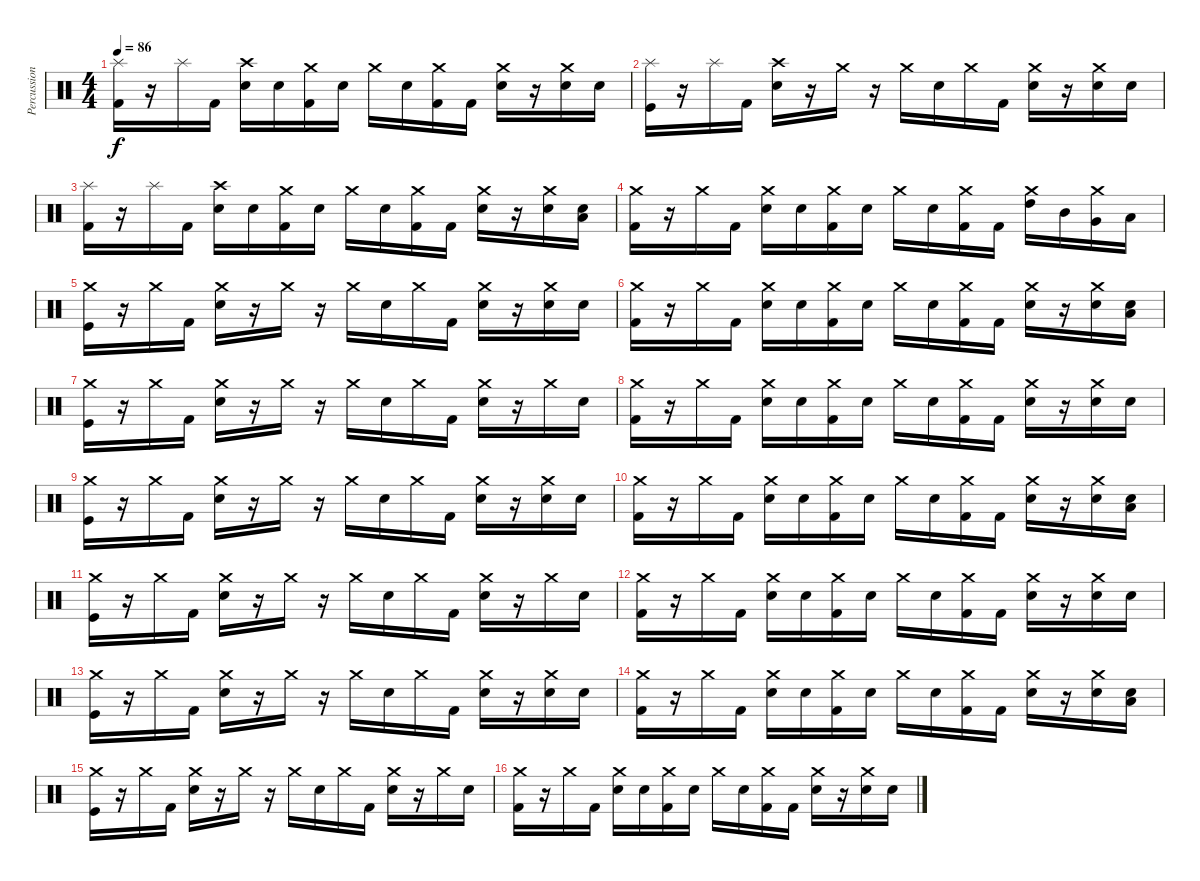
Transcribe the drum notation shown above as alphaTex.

\track ("Percussion" "Percussion") {instrument percussion}
\staff {score}
\articulation defaults
\ts (4 4)
\tempo 86
\clef neutral
\ks c
("Splash (hit)" "Kick (hit) 2").16{dy f} r.16 "Splash (hit)".16 "Kick (hit) 2".16 ("Crash high (hit)" "Electric Snare (hit)").16 "Electric Snare (hit)".16 ("Crash medium (hit)" "Kick (hit) 2").16 "Electric Snare (hit)".16 "Crash medium (hit)".16 "Electric Snare (hit)".16 ("Crash medium (hit)" "Kick (hit) 2").16 "Kick (hit) 2".16 ("Crash medium (hit)" "Electric Snare (hit)").16 r.16 ("Crash medium (hit)" "Electric Snare (hit)").16 "Electric Snare (hit)".16 |
("Splash (hit)" "Kick (hit)").16 r.16 "Splash (hit)".16 "Kick (hit) 2".16 ("Crash high (hit)" "Electric Snare (hit)").16 r.16 "Crash medium (hit)".16 r.16 "Crash medium (hit)".16 "Electric Snare (hit)".16 "Crash medium (hit)".16 "Kick (hit) 2".16 ("Crash medium (hit)" "Electric Snare (hit)").16 r.16 ("Crash medium (hit)" "Electric Snare (hit)").16 "Electric Snare (hit)".16 |
("Splash (hit)" "Kick (hit) 2").16 r.16 "Splash (hit)".16 "Kick (hit) 2".16 ("Crash high (hit)" "Electric Snare (hit)").16 "Electric Snare (hit)".16 ("Crash medium (hit)" "Kick (hit) 2").16 "Electric Snare (hit)".16 "Crash medium (hit)".16 "Electric Snare (hit)".16 ("Crash medium (hit)" "Kick (hit) 2").16 "Kick (hit) 2".16 ("Crash medium (hit)" "Electric Snare (hit)").16 r.16 ("Crash medium (hit)" "Electric Snare (hit)").16 ("Electric Snare (hit)" "Low Floor Tom (hit)").16 |
("Crash medium (hit)" "Kick (hit) 2").16 r.16 "Crash medium (hit)".16 "Kick (hit) 2".16 ("Crash medium (hit)" "Electric Snare (hit)").16 "Electric Snare (hit)".16 ("Crash medium (hit)" "Kick (hit) 2").16 "Electric Snare (hit)".16 "Crash medium (hit)".16 "Electric Snare (hit)".16 ("Crash medium (hit)" "Kick (hit) 2").16 "Kick (hit) 2".16 ("Crash medium (hit)" "High Tom (hit)").16 "Mid Tom (hit)".16 ("Crash medium (hit)" "Very Low Tom (hit)").16 "Low Floor Tom (hit)".16 |
("Crash medium (hit)" "Kick (hit)").16 r.16 "Crash medium (hit)".16 "Kick (hit) 2".16 ("Crash medium (hit)" "Electric Snare (hit)").16 r.16 "Crash medium (hit)".16 r.16 "Crash medium (hit)".16 "Electric Snare (hit)".16 "Crash medium (hit)".16 "Kick (hit) 2".16 ("Crash medium (hit)" "Electric Snare (hit)").16 r.16 ("Crash medium (hit)" "Electric Snare (hit)").16 "Electric Snare (hit)".16 |
("Crash medium (hit)" "Kick (hit) 2").16 r.16 "Crash medium (hit)".16 "Kick (hit) 2".16 ("Crash medium (hit)" "Electric Snare (hit)").16 "Electric Snare (hit)".16 ("Crash medium (hit)" "Kick (hit) 2").16 "Electric Snare (hit)".16 "Crash medium (hit)".16 "Electric Snare (hit)".16 ("Crash medium (hit)" "Kick (hit) 2").16 "Kick (hit) 2".16 ("Crash medium (hit)" "Electric Snare (hit)").16 r.16 ("Crash medium (hit)" "Electric Snare (hit)").16 ("Electric Snare (hit)" "Low Floor Tom (hit)").16 |
("Crash medium (hit)" "Kick (hit)").16 r.16 "Crash medium (hit)".16 "Kick (hit) 2".16 ("Crash medium (hit)" "Electric Snare (hit)").16 r.16 "Crash medium (hit)".16 r.16 "Crash medium (hit)".16 "Electric Snare (hit)".16 "Crash medium (hit)".16 "Kick (hit) 2".16 ("Crash medium (hit)" "Electric Snare (hit)").16 r.16 "Crash medium (hit)".16 "Electric Snare (hit)".16 |
("Crash medium (hit)" "Kick (hit) 2").16 r.16 "Crash medium (hit)".16 "Kick (hit) 2".16 ("Crash medium (hit)" "Electric Snare (hit)").16 "Electric Snare (hit)".16 ("Crash medium (hit)" "Kick (hit) 2").16 "Electric Snare (hit)".16 "Crash medium (hit)".16 "Electric Snare (hit)".16 ("Crash medium (hit)" "Kick (hit) 2").16 "Kick (hit) 2".16 ("Crash medium (hit)" "Electric Snare (hit)").16 r.16 ("Crash medium (hit)" "Electric Snare (hit)").16 "Electric Snare (hit)".16 |
("Crash medium (hit)" "Kick (hit)").16 r.16 "Crash medium (hit)".16 "Kick (hit) 2".16 ("Crash medium (hit)" "Electric Snare (hit)").16 r.16 "Crash medium (hit)".16 r.16 "Crash medium (hit)".16 "Electric Snare (hit)".16 "Crash medium (hit)".16 "Kick (hit) 2".16 ("Crash medium (hit)" "Electric Snare (hit)").16 r.16 ("Crash medium (hit)" "Electric Snare (hit)").16 "Electric Snare (hit)".16 |
("Crash medium (hit)" "Kick (hit) 2").16 r.16 "Crash medium (hit)".16 "Kick (hit) 2".16 ("Crash medium (hit)" "Electric Snare (hit)").16 "Electric Snare (hit)".16 ("Crash medium (hit)" "Kick (hit) 2").16 "Electric Snare (hit)".16 "Crash medium (hit)".16 "Electric Snare (hit)".16 ("Crash medium (hit)" "Kick (hit) 2").16 "Kick (hit) 2".16 ("Crash medium (hit)" "Electric Snare (hit)").16 r.16 ("Crash medium (hit)" "Electric Snare (hit)").16 ("Electric Snare (hit)" "Low Floor Tom (hit)").16 |
("Crash medium (hit)" "Kick (hit)").16 r.16 "Crash medium (hit)".16 "Kick (hit) 2".16 ("Crash medium (hit)" "Electric Snare (hit)").16 r.16 "Crash medium (hit)".16 r.16 "Crash medium (hit)".16 "Electric Snare (hit)".16 "Crash medium (hit)".16 "Kick (hit) 2".16 ("Crash medium (hit)" "Electric Snare (hit)").16 r.16 "Crash medium (hit)".16 "Electric Snare (hit)".16 |
("Crash medium (hit)" "Kick (hit) 2").16 r.16 "Crash medium (hit)".16 "Kick (hit) 2".16 ("Crash medium (hit)" "Electric Snare (hit)").16 "Electric Snare (hit)".16 ("Crash medium (hit)" "Kick (hit) 2").16 "Electric Snare (hit)".16 "Crash medium (hit)".16 "Electric Snare (hit)".16 ("Crash medium (hit)" "Kick (hit) 2").16 "Kick (hit) 2".16 ("Crash medium (hit)" "Electric Snare (hit)").16 r.16 ("Crash medium (hit)" "Electric Snare (hit)").16 "Electric Snare (hit)".16 |
("Crash medium (hit)" "Kick (hit)").16 r.16 "Crash medium (hit)".16 "Kick (hit) 2".16 ("Crash medium (hit)" "Electric Snare (hit)").16 r.16 "Crash medium (hit)".16 r.16 "Crash medium (hit)".16 "Electric Snare (hit)".16 "Crash medium (hit)".16 "Kick (hit) 2".16 ("Crash medium (hit)" "Electric Snare (hit)").16 r.16 ("Crash medium (hit)" "Electric Snare (hit)").16 "Electric Snare (hit)".16 |
("Crash medium (hit)" "Kick (hit) 2").16 r.16 "Crash medium (hit)".16 "Kick (hit) 2".16 ("Crash medium (hit)" "Electric Snare (hit)").16 "Electric Snare (hit)".16 ("Crash medium (hit)" "Kick (hit) 2").16 "Electric Snare (hit)".16 "Crash medium (hit)".16 "Electric Snare (hit)".16 ("Crash medium (hit)" "Kick (hit) 2").16 "Kick (hit) 2".16 ("Crash medium (hit)" "Electric Snare (hit)").16 r.16 ("Crash medium (hit)" "Electric Snare (hit)").16 ("Electric Snare (hit)" "Low Floor Tom (hit)").16 |
("Crash medium (hit)" "Kick (hit)").16 r.16 "Crash medium (hit)".16 "Kick (hit) 2".16 ("Crash medium (hit)" "Electric Snare (hit)").16 r.16 "Crash medium (hit)".16 r.16 "Crash medium (hit)".16 "Electric Snare (hit)".16 "Crash medium (hit)".16 "Kick (hit) 2".16 ("Crash medium (hit)" "Electric Snare (hit)").16 r.16 "Crash medium (hit)".16 "Electric Snare (hit)".16 |
("Crash medium (hit)" "Kick (hit) 2").16 r.16 "Crash medium (hit)".16 "Kick (hit) 2".16 ("Crash medium (hit)" "Electric Snare (hit)").16 "Electric Snare (hit)".16 ("Crash medium (hit)" "Kick (hit) 2").16 "Electric Snare (hit)".16 "Crash medium (hit)".16 "Electric Snare (hit)".16 ("Crash medium (hit)" "Kick (hit) 2").16 "Kick (hit) 2".16 ("Crash medium (hit)" "Electric Snare (hit)").16 r.16 ("Crash medium (hit)" "Electric Snare (hit)").16 "Electric Snare (hit)".16
